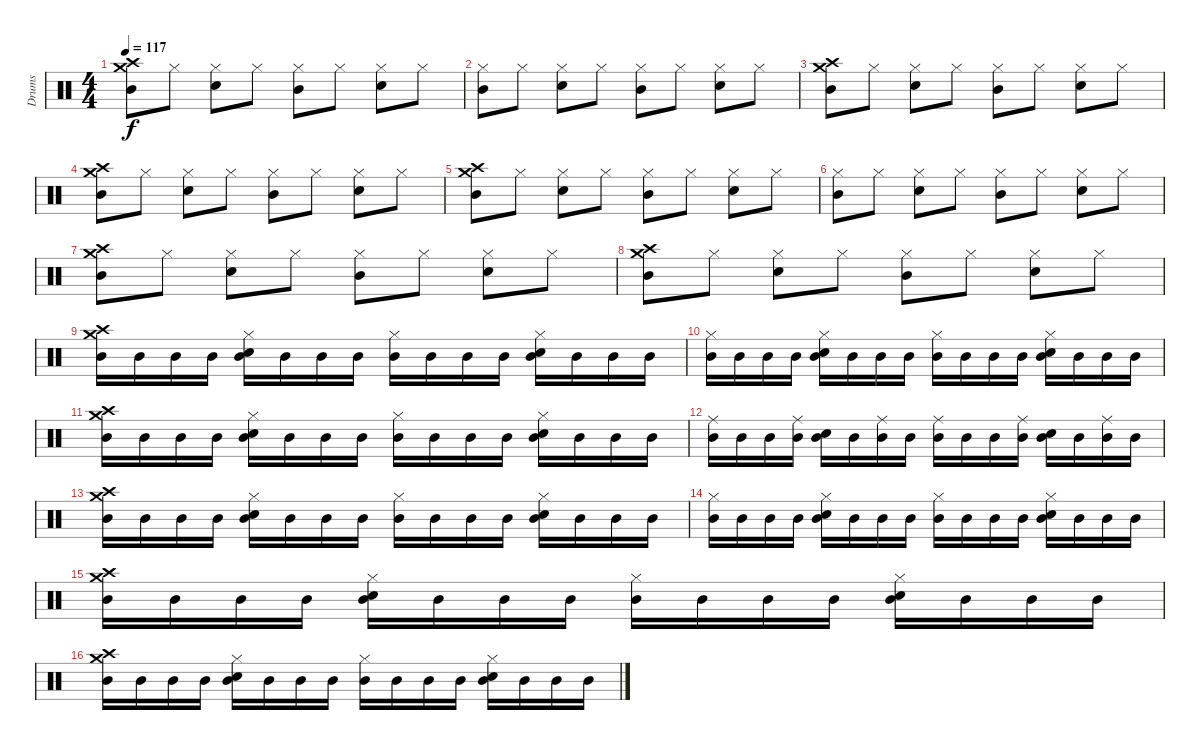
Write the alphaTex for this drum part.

\track ("Drums" "Drums") {instrument percussion}
\staff {score}
\articulation defaults
\ts (4 4)
\tempo 117
\clef neutral
\ks c
("Crash high (hit)" "Crash medium (hit)" "Mid Tom (hit)").8{dy f} "Hi-Hat (closed)".8 ("Hi-Hat (closed)" "Electric Snare (hit)").8 "Hi-Hat (closed)".8 ("Hi-Hat (closed)" "Mid Tom (hit)").8 "Hi-Hat (closed)".8 ("Hi-Hat (closed)" "Electric Snare (hit)").8 "Hi-Hat (closed)".8 |
("Hi-Hat (closed)" "Mid Tom (hit)").8 "Hi-Hat (closed)".8 ("Hi-Hat (closed)" "Electric Snare (hit)").8 "Hi-Hat (closed)".8 ("Hi-Hat (closed)" "Mid Tom (hit)").8 "Hi-Hat (closed)".8 ("Hi-Hat (closed)" "Electric Snare (hit)").8 "Hi-Hat (closed)".8 |
("Crash high (hit)" "Crash medium (hit)" "Mid Tom (hit)").8 "Hi-Hat (closed)".8 ("Hi-Hat (closed)" "Electric Snare (hit)").8 "Hi-Hat (closed)".8 ("Hi-Hat (closed)" "Mid Tom (hit)").8 "Hi-Hat (closed)".8 ("Hi-Hat (closed)" "Electric Snare (hit)").8 "Hi-Hat (closed)".8 |
("Crash high (hit)" "Crash medium (hit)" "Mid Tom (hit)").8 "Hi-Hat (closed)".8 ("Hi-Hat (closed)" "Electric Snare (hit)").8 "Hi-Hat (closed)".8 ("Hi-Hat (closed)" "Mid Tom (hit)").8 "Hi-Hat (closed)".8 ("Hi-Hat (closed)" "Electric Snare (hit)").8 "Hi-Hat (closed)".8 |
("Crash high (hit)" "Crash medium (hit)" "Mid Tom (hit)").8 "Hi-Hat (closed)".8 ("Hi-Hat (closed)" "Electric Snare (hit)").8 "Hi-Hat (closed)".8 ("Hi-Hat (closed)" "Mid Tom (hit)").8 "Hi-Hat (closed)".8 ("Hi-Hat (closed)" "Electric Snare (hit)").8 "Hi-Hat (closed)".8 |
("Hi-Hat (closed)" "Mid Tom (hit)").8 "Hi-Hat (closed)".8 ("Hi-Hat (closed)" "Electric Snare (hit)").8 "Hi-Hat (closed)".8 ("Hi-Hat (closed)" "Mid Tom (hit)").8 "Hi-Hat (closed)".8 ("Hi-Hat (closed)" "Electric Snare (hit)").8 "Hi-Hat (closed)".8 |
("Crash high (hit)" "Crash medium (hit)" "Mid Tom (hit)").8 "Hi-Hat (closed)".8 ("Hi-Hat (closed)" "Electric Snare (hit)").8 "Hi-Hat (closed)".8 ("Hi-Hat (closed)" "Mid Tom (hit)").8 "Hi-Hat (closed)".8 ("Hi-Hat (closed)" "Electric Snare (hit)").8 "Hi-Hat (closed)".8 |
("Crash high (hit)" "Crash medium (hit)" "Mid Tom (hit)").8 "Hi-Hat (closed)".8 ("Hi-Hat (closed)" "Electric Snare (hit)").8 "Hi-Hat (closed)".8 ("Hi-Hat (closed)" "Mid Tom (hit)").8 "Hi-Hat (closed)".8 ("Hi-Hat (closed)" "Electric Snare (hit)").8 "Hi-Hat (closed)".8 |
("Crash high (hit)" "Crash medium (hit)" "Mid Tom (hit)").16 "Mid Tom (hit)".16 "Mid Tom (hit)".16 "Mid Tom (hit)".16 ("Hi-Hat (closed)" "Electric Snare (hit)" "Mid Tom (hit)").16 "Mid Tom (hit)".16 "Mid Tom (hit)".16 "Mid Tom (hit)".16 ("Hi-Hat (closed)" "Mid Tom (hit)").16 "Mid Tom (hit)".16 "Mid Tom (hit)".16 "Mid Tom (hit)".16 ("Hi-Hat (closed)" "Electric Snare (hit)" "Mid Tom (hit)").16 "Mid Tom (hit)".16 "Mid Tom (hit)".16 "Mid Tom (hit)".16 |
("Hi-Hat (closed)" "Mid Tom (hit)").16 "Mid Tom (hit)".16 "Mid Tom (hit)".16 "Mid Tom (hit)".16 ("Hi-Hat (closed)" "Electric Snare (hit)" "Mid Tom (hit)").16 "Mid Tom (hit)".16 "Mid Tom (hit)".16 "Mid Tom (hit)".16 ("Hi-Hat (closed)" "Mid Tom (hit)").16 "Mid Tom (hit)".16 "Mid Tom (hit)".16 "Mid Tom (hit)".16 ("Hi-Hat (closed)" "Electric Snare (hit)" "Mid Tom (hit)").16 "Mid Tom (hit)".16 "Mid Tom (hit)".16 "Mid Tom (hit)".16 |
("Crash high (hit)" "Crash medium (hit)" "Mid Tom (hit)").16 "Mid Tom (hit)".16 "Mid Tom (hit)".16 "Mid Tom (hit)".16 ("Hi-Hat (closed)" "Electric Snare (hit)" "Mid Tom (hit)").16 "Mid Tom (hit)".16 "Mid Tom (hit)".16 "Mid Tom (hit)".16 ("Hi-Hat (closed)" "Mid Tom (hit)").16 "Mid Tom (hit)".16 "Mid Tom (hit)".16 "Mid Tom (hit)".16 ("Hi-Hat (closed)" "Electric Snare (hit)" "Mid Tom (hit)").16 "Mid Tom (hit)".16 "Mid Tom (hit)".16 "Mid Tom (hit)".16 |
("Ride (middle)" "Mid Tom (hit)").16 "Mid Tom (hit)".16 "Mid Tom (hit)".16 ("Ride (middle)" "Mid Tom (hit)").16 ("Electric Snare (hit)" "Mid Tom (hit)").16 "Mid Tom (hit)".16 ("Ride (middle)" "Mid Tom (hit)").16 "Mid Tom (hit)".16 ("Ride (middle)" "Mid Tom (hit)").16 "Mid Tom (hit)".16 "Mid Tom (hit)".16 ("Ride (middle)" "Mid Tom (hit)").16 ("Electric Snare (hit)" "Mid Tom (hit)").16 "Mid Tom (hit)".16 ("Ride (middle)" "Mid Tom (hit)").16 "Mid Tom (hit)".16 |
("Crash high (hit)" "Crash medium (hit)" "Mid Tom (hit)").16 "Mid Tom (hit)".16 "Mid Tom (hit)".16 "Mid Tom (hit)".16 ("Hi-Hat (closed)" "Electric Snare (hit)" "Mid Tom (hit)").16 "Mid Tom (hit)".16 "Mid Tom (hit)".16 "Mid Tom (hit)".16 ("Hi-Hat (closed)" "Mid Tom (hit)").16 "Mid Tom (hit)".16 "Mid Tom (hit)".16 "Mid Tom (hit)".16 ("Hi-Hat (closed)" "Electric Snare (hit)" "Mid Tom (hit)").16 "Mid Tom (hit)".16 "Mid Tom (hit)".16 "Mid Tom (hit)".16 |
("Hi-Hat (closed)" "Mid Tom (hit)").16 "Mid Tom (hit)".16 "Mid Tom (hit)".16 "Mid Tom (hit)".16 ("Hi-Hat (closed)" "Electric Snare (hit)" "Mid Tom (hit)").16 "Mid Tom (hit)".16 "Mid Tom (hit)".16 "Mid Tom (hit)".16 ("Hi-Hat (closed)" "Mid Tom (hit)").16 "Mid Tom (hit)".16 "Mid Tom (hit)".16 "Mid Tom (hit)".16 ("Hi-Hat (closed)" "Electric Snare (hit)" "Mid Tom (hit)").16 "Mid Tom (hit)".16 "Mid Tom (hit)".16 "Mid Tom (hit)".16 |
("Crash high (hit)" "Crash medium (hit)" "Mid Tom (hit)").16 "Mid Tom (hit)".16 "Mid Tom (hit)".16 "Mid Tom (hit)".16 ("Hi-Hat (closed)" "Electric Snare (hit)" "Mid Tom (hit)").16 "Mid Tom (hit)".16 "Mid Tom (hit)".16 "Mid Tom (hit)".16 ("Hi-Hat (closed)" "Mid Tom (hit)").16 "Mid Tom (hit)".16 "Mid Tom (hit)".16 "Mid Tom (hit)".16 ("Hi-Hat (closed)" "Electric Snare (hit)" "Mid Tom (hit)").16 "Mid Tom (hit)".16 "Mid Tom (hit)".16 "Mid Tom (hit)".16 |
("Crash high (hit)" "Crash medium (hit)" "Mid Tom (hit)").16 "Mid Tom (hit)".16 "Mid Tom (hit)".16 "Mid Tom (hit)".16 ("Hi-Hat (closed)" "Electric Snare (hit)" "Mid Tom (hit)").16 "Mid Tom (hit)".16 "Mid Tom (hit)".16 "Mid Tom (hit)".16 ("Hi-Hat (closed)" "Mid Tom (hit)").16 "Mid Tom (hit)".16 "Mid Tom (hit)".16 "Mid Tom (hit)".16 ("Hi-Hat (closed)" "Electric Snare (hit)" "Mid Tom (hit)").16 "Mid Tom (hit)".16 "Mid Tom (hit)".16 "Mid Tom (hit)".16
